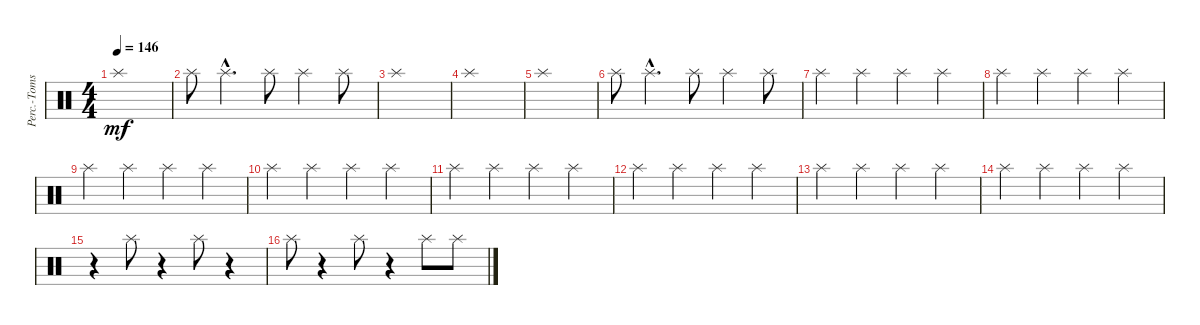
\track ("Perc.-Toms/Cym.2" "Perc.-Toms") {instrument percussion}
\staff {score}
\articulation defaults
\ts (4 4)
\tempo 146
\clef neutral
\ks c "Splash (hit)".1{dy mf}
|
"Splash (hit)".8 "Splash (hit)"{hac}.4{d} "Splash (hit)".8 "Splash (hit)".4 "Splash (hit)".8 |
"Splash (hit)".1 |
"Splash (hit)".1 |
"Splash (hit)".1 |
"Splash (hit)".8 "Splash (hit)"{hac}.4{d} "Splash (hit)".8 "Splash (hit)".4 "Splash (hit)".8 |
"Splash (hit)".4 "Splash (hit)".4 "Splash (hit)".4 "Splash (hit)".4 |
"Splash (hit)".4 "Splash (hit)".4 "Splash (hit)".4 "Splash (hit)".4 |
"Splash (hit)".4 "Splash (hit)".4 "Splash (hit)".4 "Splash (hit)".4 |
"Splash (hit)".4 "Splash (hit)".4 "Splash (hit)".4 "Splash (hit)".4 |
"Splash (hit)".4 "Splash (hit)".4 "Splash (hit)".4 "Splash (hit)".4 |
"Splash (hit)".4 "Splash (hit)".4 "Splash (hit)".4 "Splash (hit)".4 |
"Splash (hit)".4 "Splash (hit)".4 "Splash (hit)".4 "Splash (hit)".4 |
"Splash (hit)".4 "Splash (hit)".4 "Splash (hit)".4 "Splash (hit)".4 |
r.4 "Splash (hit)".8 r.4 "Splash (hit)".8 r.4 |
"Splash (hit)".8 r.4 "Splash (hit)".8 r.4 "Splash (hit)".8 "Splash (hit)".8
